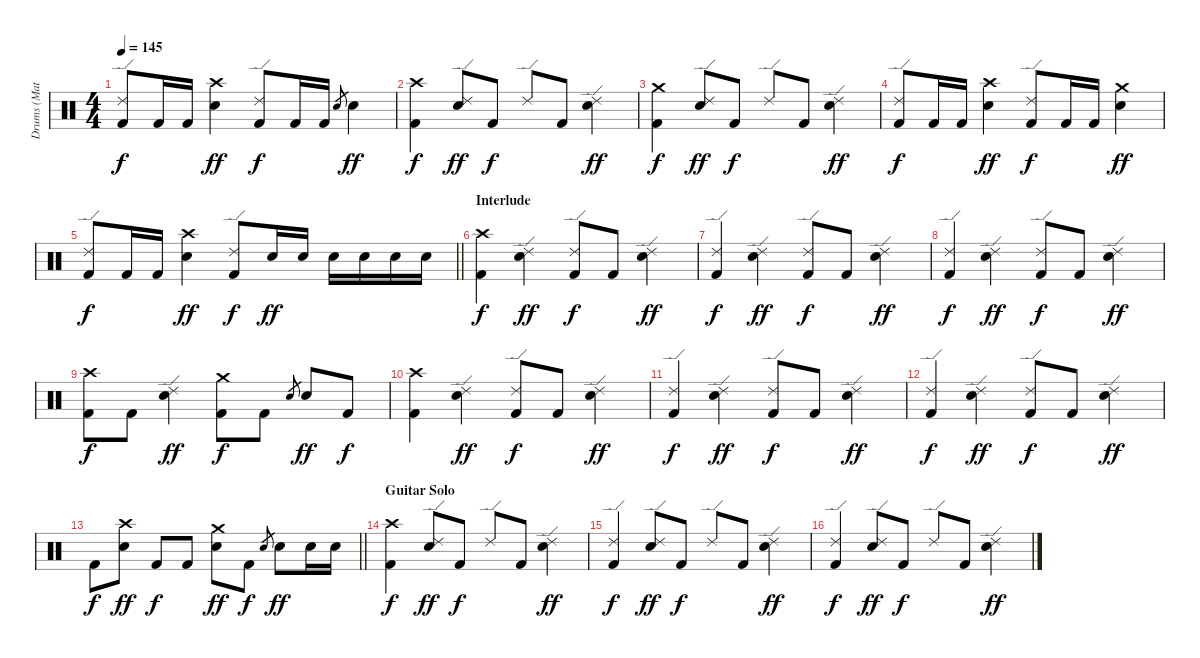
\track ("Drums (Matt)" "Drums (Mat") {instrument percussion}
\staff {score}
\articulation defaults
\ts (4 4)
\tempo 145
\clef neutral
\ks c
("Ride (edge) 2" "Kick (hit) 2").8{dy f} "Kick (hit) 2".16 "Kick (hit) 2".16 ("Crash high (hit)" "Snare (hit) 2").4{dy ff} ("Ride (edge) 2" "Kick (hit) 2").8{dy f} "Kick (hit) 2".16 "Kick (hit) 2".16 "Snare (hit) 2".8{gr} "Snare (hit) 2".4{dy ff} |
("Crash high (hit)" "Kick (hit) 2").4{dy f} ("Ride (edge) 2" "Snare (hit) 2").8{dy ff} "Kick (hit) 2".8{dy f} "Ride (edge) 2".8 "Kick (hit) 2".8 ("Ride (edge) 2" "Snare (hit) 2").4{dy ff} |
("Crash medium (hit)" "Kick (hit) 2").4{dy f} ("Ride (edge) 2" "Snare (hit) 2").8{dy ff} "Kick (hit) 2".8{dy f} "Ride (edge) 2".8 "Kick (hit) 2".8 ("Ride (edge) 2" "Snare (hit) 2").4{dy ff} |
("Ride (edge) 2" "Kick (hit) 2").8{dy f} "Kick (hit) 2".16 "Kick (hit) 2".16 ("Crash high (hit)" "Snare (hit) 2").4{dy ff} ("Ride (edge) 2" "Kick (hit) 2").8{dy f} "Kick (hit) 2".16 "Kick (hit) 2".16 ("Crash medium (hit)" "Snare (hit) 2").4{dy ff} |
\barLineRight lightlight
("Ride (edge) 2" "Kick (hit) 2").8{dy f} "Kick (hit) 2".16 "Kick (hit) 2".16 ("Crash high (hit)" "Snare (hit) 2").4{dy ff} ("Ride (edge) 2" "Kick (hit) 2").8{dy f} "Snare (hit) 2".16{dy ff} "Snare (hit) 2".16 "Snare (hit) 2".16 "Snare (hit) 2".16 "Snare (hit) 2".16 "Snare (hit) 2".16 |
\section ("" "Interlude")
("Crash high (hit)" "Kick (hit) 2").4{dy f} ("Ride (edge) 2" "Snare (hit) 2").4{dy ff} ("Ride (edge) 2" "Kick (hit) 2").8{dy f} "Kick (hit) 2".8 ("Ride (edge) 2" "Snare (hit) 2").4{dy ff} |
("Ride (edge) 2" "Kick (hit) 2").4{dy f} ("Ride (edge) 2" "Snare (hit) 2").4{dy ff} ("Ride (edge) 2" "Kick (hit) 2").8{dy f} "Kick (hit) 2".8 ("Ride (edge) 2" "Snare (hit) 2").4{dy ff} |
("Ride (edge) 2" "Kick (hit) 2").4{dy f} ("Ride (edge) 2" "Snare (hit) 2").4{dy ff} ("Ride (edge) 2" "Kick (hit) 2").8{dy f} "Kick (hit) 2".8 ("Ride (edge) 2" "Snare (hit) 2").4{dy ff} |
("Crash high (hit)" "Kick (hit) 2").8{dy f} "Kick (hit) 2".8 ("Ride (edge) 2" "Snare (hit) 2").4{dy ff} ("Crash medium (hit)" "Kick (hit) 2").8{dy f} "Kick (hit) 2".8 "Snare (hit) 2".8{gr} "Snare (hit) 2".8{dy ff} "Kick (hit) 2".8{dy f} |
("Crash high (hit)" "Kick (hit) 2").4 ("Ride (edge) 2" "Snare (hit) 2").4{dy ff} ("Ride (edge) 2" "Kick (hit) 2").8{dy f} "Kick (hit) 2".8 ("Ride (edge) 2" "Snare (hit) 2").4{dy ff} |
("Ride (edge) 2" "Kick (hit) 2").4{dy f} ("Ride (edge) 2" "Snare (hit) 2").4{dy ff} ("Ride (edge) 2" "Kick (hit) 2").8{dy f} "Kick (hit) 2".8 ("Ride (edge) 2" "Snare (hit) 2").4{dy ff} |
("Ride (edge) 2" "Kick (hit) 2").4{dy f} ("Ride (edge) 2" "Snare (hit) 2").4{dy ff} ("Ride (edge) 2" "Kick (hit) 2").8{dy f} "Kick (hit) 2".8 ("Ride (edge) 2" "Snare (hit) 2").4{dy ff} |
\barLineRight lightlight "Kick (hit) 2".8{dy f}
("Crash high (hit)" "Snare (hit) 2").8{dy ff} "Kick (hit) 2".8{dy f} "Kick (hit) 2".8 ("Crash medium (hit)" "Snare (hit) 2").8{dy ff} "Kick (hit) 2".8{dy f} "Snare (hit) 2".8{gr} "Snare (hit) 2".8{dy ff} "Snare (hit) 2".16 "Snare (hit) 2".16 |
\section ("" "Guitar Solo")
("Crash high (hit)" "Kick (hit) 2").4{dy f} ("Ride (edge) 2" "Snare (hit) 2").8{dy ff} "Kick (hit) 2".8{dy f} "Ride (edge) 2".8 "Kick (hit) 2".8 ("Ride (edge) 2" "Snare (hit) 2").4{dy ff} |
("Ride (edge) 2" "Kick (hit) 2").4{dy f} ("Ride (edge) 2" "Snare (hit) 2").8{dy ff} "Kick (hit) 2".8{dy f} "Ride (edge) 2".8 "Kick (hit) 2".8 ("Ride (edge) 2" "Snare (hit) 2").4{dy ff} |
("Ride (edge) 2" "Kick (hit) 2").4{dy f} ("Ride (edge) 2" "Snare (hit) 2").8{dy ff} "Kick (hit) 2".8{dy f} "Ride (edge) 2".8 "Kick (hit) 2".8 ("Ride (edge) 2" "Snare (hit) 2").4{dy ff}
